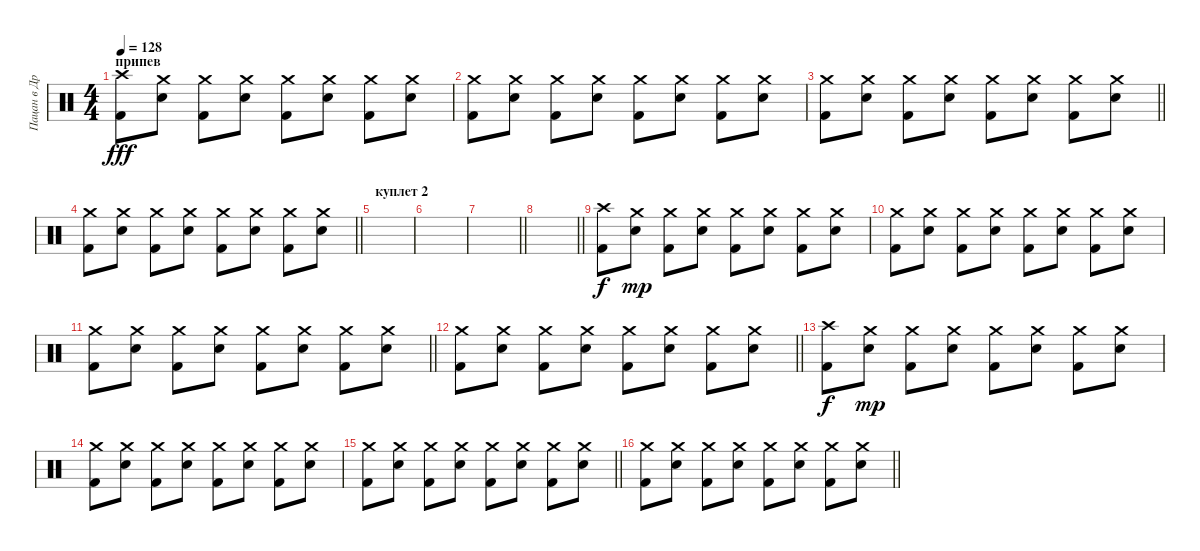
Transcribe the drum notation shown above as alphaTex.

\track ("Пацан в Дредах" "Пацан в Др") {instrument percussion}
\staff {score}
\articulation defaults
\ts (4 4)
\section ("" "припев")
\tempo 128
\clef neutral
\ks c
("Crash high (hit)" "Kick (hit) 2").8{dy fff} ("Crash medium (hit)" "Electric Snare (hit)").8 ("Crash medium (hit)" "Kick (hit) 2").8 ("Crash medium (hit)" "Electric Snare (hit)").8 ("Crash medium (hit)" "Kick (hit) 2").8 ("Crash medium (hit)" "Electric Snare (hit)").8 ("Crash medium (hit)" "Kick (hit) 2").8 ("Crash medium (hit)" "Electric Snare (hit)").8 |
("Crash medium (hit)" "Kick (hit) 2").8 ("Crash medium (hit)" "Electric Snare (hit)").8 ("Crash medium (hit)" "Kick (hit) 2").8 ("Crash medium (hit)" "Electric Snare (hit)").8 ("Crash medium (hit)" "Kick (hit) 2").8 ("Crash medium (hit)" "Electric Snare (hit)").8 ("Crash medium (hit)" "Kick (hit) 2").8 ("Crash medium (hit)" "Electric Snare (hit)").8 |
\barLineRight lightlight
("Crash medium (hit)" "Kick (hit) 2").8 ("Crash medium (hit)" "Electric Snare (hit)").8 ("Crash medium (hit)" "Kick (hit) 2").8 ("Crash medium (hit)" "Electric Snare (hit)").8 ("Crash medium (hit)" "Kick (hit) 2").8 ("Crash medium (hit)" "Electric Snare (hit)").8 ("Crash medium (hit)" "Kick (hit) 2").8 ("Crash medium (hit)" "Electric Snare (hit)").8 |
\barLineRight lightlight
("Crash medium (hit)" "Kick (hit) 2").8 ("Crash medium (hit)" "Electric Snare (hit)").8 ("Crash medium (hit)" "Kick (hit) 2").8 ("Crash medium (hit)" "Electric Snare (hit)").8 ("Crash medium (hit)" "Kick (hit) 2").8 ("Crash medium (hit)" "Electric Snare (hit)").8 ("Crash medium (hit)" "Kick (hit) 2").8 ("Crash medium (hit)" "Electric Snare (hit)").8 |
\section ("" "куплет 2")
|
|
\barLineRight lightlight
|
\barLineRight lightlight
|
("Crash high (hit)" "Kick (hit) 2").8{dy f} ("Crash medium (hit)" "Electric Snare (hit)").8{dy mp} ("Crash medium (hit)" "Kick (hit) 2").8 ("Crash medium (hit)" "Electric Snare (hit)").8 ("Crash medium (hit)" "Kick (hit) 2").8 ("Crash medium (hit)" "Electric Snare (hit)").8 ("Crash medium (hit)" "Kick (hit) 2").8 ("Crash medium (hit)" "Electric Snare (hit)").8 |
("Crash medium (hit)" "Kick (hit) 2").8 ("Crash medium (hit)" "Electric Snare (hit)").8 ("Crash medium (hit)" "Kick (hit) 2").8 ("Crash medium (hit)" "Electric Snare (hit)").8 ("Crash medium (hit)" "Kick (hit) 2").8 ("Crash medium (hit)" "Electric Snare (hit)").8 ("Crash medium (hit)" "Kick (hit) 2").8 ("Crash medium (hit)" "Electric Snare (hit)").8 |
\barLineRight lightlight
("Crash medium (hit)" "Kick (hit) 2").8 ("Crash medium (hit)" "Electric Snare (hit)").8 ("Crash medium (hit)" "Kick (hit) 2").8 ("Crash medium (hit)" "Electric Snare (hit)").8 ("Crash medium (hit)" "Kick (hit) 2").8 ("Crash medium (hit)" "Electric Snare (hit)").8 ("Crash medium (hit)" "Kick (hit) 2").8 ("Crash medium (hit)" "Electric Snare (hit)").8 |
\barLineRight lightlight
("Crash medium (hit)" "Kick (hit) 2").8 ("Crash medium (hit)" "Electric Snare (hit)").8 ("Crash medium (hit)" "Kick (hit) 2").8 ("Crash medium (hit)" "Electric Snare (hit)").8 ("Crash medium (hit)" "Kick (hit) 2").8 ("Crash medium (hit)" "Electric Snare (hit)").8 ("Crash medium (hit)" "Kick (hit) 2").8 ("Crash medium (hit)" "Electric Snare (hit)").8 |
("Crash high (hit)" "Kick (hit) 2").8{dy f} ("Crash medium (hit)" "Electric Snare (hit)").8{dy mp} ("Crash medium (hit)" "Kick (hit) 2").8 ("Crash medium (hit)" "Electric Snare (hit)").8 ("Crash medium (hit)" "Kick (hit) 2").8 ("Crash medium (hit)" "Electric Snare (hit)").8 ("Crash medium (hit)" "Kick (hit) 2").8 ("Crash medium (hit)" "Electric Snare (hit)").8 |
("Crash medium (hit)" "Kick (hit) 2").8 ("Crash medium (hit)" "Electric Snare (hit)").8 ("Crash medium (hit)" "Kick (hit) 2").8 ("Crash medium (hit)" "Electric Snare (hit)").8 ("Crash medium (hit)" "Kick (hit) 2").8 ("Crash medium (hit)" "Electric Snare (hit)").8 ("Crash medium (hit)" "Kick (hit) 2").8 ("Crash medium (hit)" "Electric Snare (hit)").8 |
\barLineRight lightlight
("Crash medium (hit)" "Kick (hit) 2").8 ("Crash medium (hit)" "Electric Snare (hit)").8 ("Crash medium (hit)" "Kick (hit) 2").8 ("Crash medium (hit)" "Electric Snare (hit)").8 ("Crash medium (hit)" "Kick (hit) 2").8 ("Crash medium (hit)" "Electric Snare (hit)").8 ("Crash medium (hit)" "Kick (hit) 2").8 ("Crash medium (hit)" "Electric Snare (hit)").8 |
\barLineRight lightlight
("Crash medium (hit)" "Kick (hit) 2").8 ("Crash medium (hit)" "Electric Snare (hit)").8 ("Crash medium (hit)" "Kick (hit) 2").8 ("Crash medium (hit)" "Electric Snare (hit)").8 ("Crash medium (hit)" "Kick (hit) 2").8 ("Crash medium (hit)" "Electric Snare (hit)").8 ("Crash medium (hit)" "Kick (hit) 2").8 ("Crash medium (hit)" "Electric Snare (hit)").8
